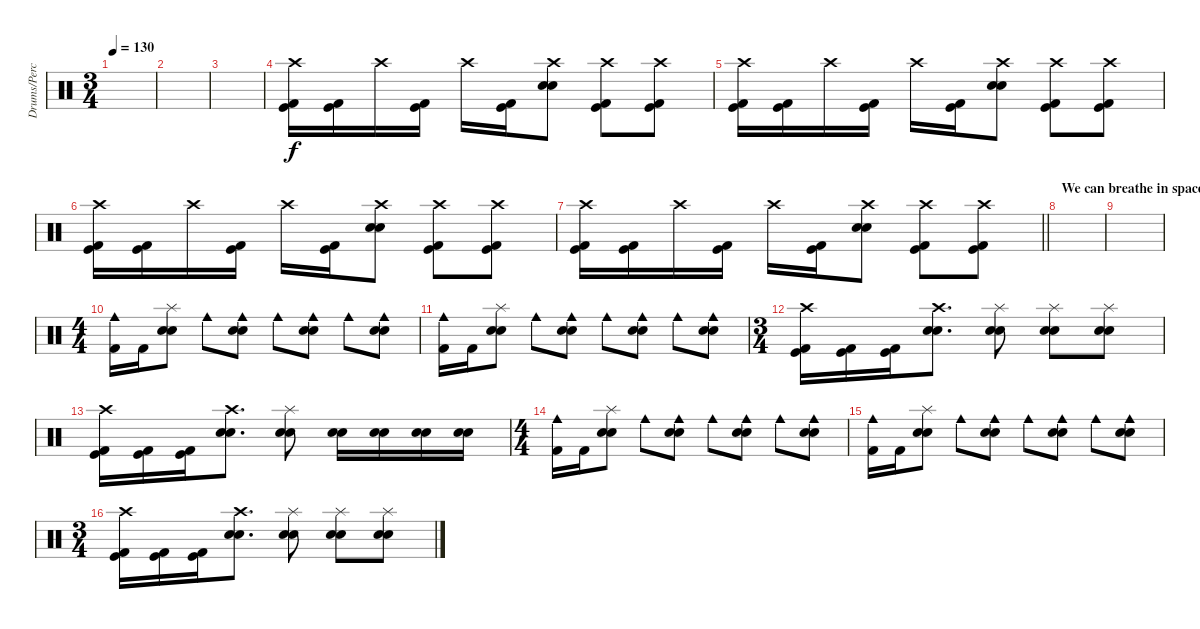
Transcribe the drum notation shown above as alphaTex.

\track ("Drums/Percussion" "Drums/Perc") {instrument percussion}
\staff {score}
\articulation defaults
\ts (3 4)
\tempo 130
\clef neutral
\ks c
|
|
|
("Crash high (hit)" "Kick (hit)" "Kick (hit) 2").16 ("Kick (hit)" "Kick (hit) 2").16 "Crash high (hit)".16 ("Kick (hit)" "Kick (hit) 2").16 "Crash high (hit)".16 ("Kick (hit)" "Kick (hit) 2").16 ("Crash high (hit)" "Electric Snare (hit)" "Snare (hit) 2").8 ("Crash high (hit)" "Kick (hit)" "Kick (hit) 2").8 ("Crash high (hit)" "Kick (hit)" "Kick (hit) 2").8 |
("Crash high (hit)" "Kick (hit)" "Kick (hit) 2").16 ("Kick (hit)" "Kick (hit) 2").16 "Crash high (hit)".16 ("Kick (hit)" "Kick (hit) 2").16 "Crash high (hit)".16 ("Kick (hit)" "Kick (hit) 2").16 ("Crash high (hit)" "Electric Snare (hit)" "Snare (hit) 2").8 ("Crash high (hit)" "Kick (hit)" "Kick (hit) 2").8 ("Crash high (hit)" "Kick (hit)" "Kick (hit) 2").8 |
("Crash high (hit)" "Kick (hit)" "Kick (hit) 2").16 ("Kick (hit)" "Kick (hit) 2").16 "Crash high (hit)".16 ("Kick (hit)" "Kick (hit) 2").16 "Crash high (hit)".16 ("Kick (hit)" "Kick (hit) 2").16 ("Crash high (hit)" "Electric Snare (hit)" "Snare (hit) 2").8 ("Crash high (hit)" "Kick (hit)" "Kick (hit) 2").8 ("Crash high (hit)" "Kick (hit)" "Kick (hit) 2").8 |
\barLineRight lightlight
("Crash high (hit)" "Kick (hit)" "Kick (hit) 2").16 ("Kick (hit)" "Kick (hit) 2").16 "Crash high (hit)".16 ("Kick (hit)" "Kick (hit) 2").16 "Crash high (hit)".16 ("Kick (hit)" "Kick (hit) 2").16 ("Crash high (hit)" "Electric Snare (hit)" "Snare (hit) 2").8 ("Crash high (hit)" "Kick (hit)" "Kick (hit) 2").8 ("Crash high (hit)" "Kick (hit)" "Kick (hit) 2").8 |
\section ("" "We can breathe in space...")
|
|
\ts (4 4)
("Cowbell medium (hit)" "Kick (hit) 2").16 "Kick (hit) 2".16 ("Splash (hit)" "Electric Snare (hit)" "Snare (hit) 2").8 "Cowbell medium (hit)".8 ("Cowbell medium (hit)" "Electric Snare (hit)" "Snare (hit) 2").8 "Cowbell medium (hit)".8 ("Cowbell medium (hit)" "Electric Snare (hit)" "Snare (hit) 2").8 "Cowbell medium (hit)".8 ("Cowbell medium (hit)" "Electric Snare (hit)" "Snare (hit) 2").8 |
("Cowbell medium (hit)" "Kick (hit) 2").16 "Kick (hit) 2".16 ("Splash (hit)" "Electric Snare (hit)" "Snare (hit) 2").8 "Cowbell medium (hit)".8 ("Cowbell medium (hit)" "Electric Snare (hit)" "Snare (hit) 2").8 "Cowbell medium (hit)".8 ("Cowbell medium (hit)" "Electric Snare (hit)" "Snare (hit) 2").8 "Cowbell medium (hit)".8 ("Cowbell medium (hit)" "Electric Snare (hit)" "Snare (hit) 2").8 |
\ts (3 4)
("Crash high (hit)" "Kick (hit)" "Kick (hit) 2").16 ("Kick (hit)" "Kick (hit) 2").16 ("Kick (hit)" "Kick (hit) 2").16 ("Crash high (hit)" "Electric Snare (hit)" "Snare (hit) 2").8{d} ("Splash (hit)" "Electric Snare (hit)" "Snare (hit) 2").8 ("Splash (hit)" "Electric Snare (hit)" "Snare (hit) 2").8 ("Splash (hit)" "Electric Snare (hit)" "Snare (hit) 2").8 |
("Crash high (hit)" "Kick (hit)" "Kick (hit) 2").16 ("Kick (hit)" "Kick (hit) 2").16 ("Kick (hit)" "Kick (hit) 2").16 ("Crash high (hit)" "Electric Snare (hit)" "Snare (hit) 2").8{d} ("Splash (hit)" "Electric Snare (hit)" "Snare (hit) 2").8 ("Electric Snare (hit)" "Snare (hit) 2").16 ("Electric Snare (hit)" "Snare (hit) 2").16 ("Electric Snare (hit)" "Snare (hit) 2").16 ("Electric Snare (hit)" "Snare (hit) 2").16 |
\ts (4 4)
("Cowbell medium (hit)" "Kick (hit) 2").16 "Kick (hit) 2".16 ("Splash (hit)" "Electric Snare (hit)" "Snare (hit) 2").8 "Cowbell medium (hit)".8 ("Cowbell medium (hit)" "Electric Snare (hit)" "Snare (hit) 2").8 "Cowbell medium (hit)".8 ("Cowbell medium (hit)" "Electric Snare (hit)" "Snare (hit) 2").8 "Cowbell medium (hit)".8 ("Cowbell medium (hit)" "Electric Snare (hit)" "Snare (hit) 2").8 |
("Cowbell medium (hit)" "Kick (hit) 2").16 "Kick (hit) 2".16 ("Splash (hit)" "Electric Snare (hit)" "Snare (hit) 2").8 "Cowbell medium (hit)".8 ("Cowbell medium (hit)" "Electric Snare (hit)" "Snare (hit) 2").8 "Cowbell medium (hit)".8 ("Cowbell medium (hit)" "Electric Snare (hit)" "Snare (hit) 2").8 "Cowbell medium (hit)".8 ("Cowbell medium (hit)" "Electric Snare (hit)" "Snare (hit) 2").8 |
\ts (3 4)
("Crash high (hit)" "Kick (hit)" "Kick (hit) 2").16 ("Kick (hit)" "Kick (hit) 2").16 ("Kick (hit)" "Kick (hit) 2").16 ("Crash high (hit)" "Electric Snare (hit)" "Snare (hit) 2").8{d} ("Splash (hit)" "Electric Snare (hit)" "Snare (hit) 2").8 ("Splash (hit)" "Electric Snare (hit)" "Snare (hit) 2").8 ("Splash (hit)" "Electric Snare (hit)" "Snare (hit) 2").8
